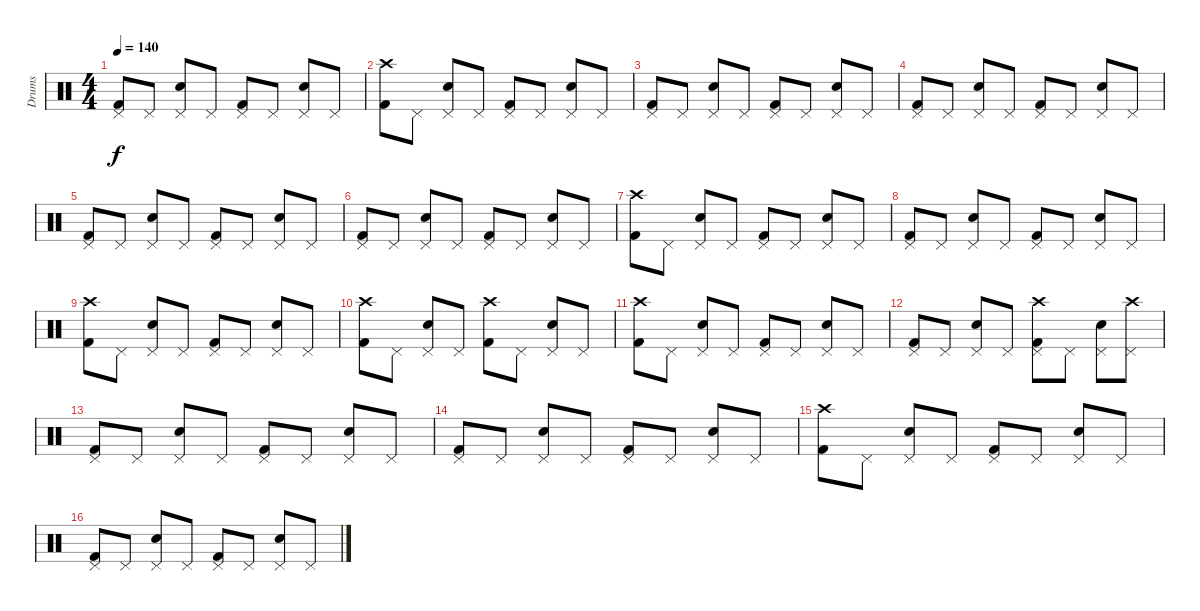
\track ("Drums" "Drums") {instrument percussion}
\staff {score}
\articulation defaults
\ts (4 4)
\tempo 140
\clef neutral
\ks c
("Pedal Hi-Hat (hit)" "Kick (hit) 2").8{dy f} "Pedal Hi-Hat (hit)".8 ("Pedal Hi-Hat (hit)" "Snare (hit) 2").8 "Pedal Hi-Hat (hit)".8 ("Pedal Hi-Hat (hit)" "Kick (hit) 2").8 "Pedal Hi-Hat (hit)".8 ("Pedal Hi-Hat (hit)" "Snare (hit) 2").8 "Pedal Hi-Hat (hit)".8 |
("Crash high (hit)" "Kick (hit) 2").8 "Pedal Hi-Hat (hit)".8 ("Pedal Hi-Hat (hit)" "Snare (hit) 2").8 "Pedal Hi-Hat (hit)".8 ("Pedal Hi-Hat (hit)" "Kick (hit) 2").8 "Pedal Hi-Hat (hit)".8 ("Pedal Hi-Hat (hit)" "Snare (hit) 2").8 "Pedal Hi-Hat (hit)".8 |
("Pedal Hi-Hat (hit)" "Kick (hit) 2").8 "Pedal Hi-Hat (hit)".8 ("Pedal Hi-Hat (hit)" "Snare (hit) 2").8 "Pedal Hi-Hat (hit)".8 ("Pedal Hi-Hat (hit)" "Kick (hit) 2").8 "Pedal Hi-Hat (hit)".8 ("Pedal Hi-Hat (hit)" "Snare (hit) 2").8 "Pedal Hi-Hat (hit)".8 |
("Pedal Hi-Hat (hit)" "Kick (hit) 2").8 "Pedal Hi-Hat (hit)".8 ("Pedal Hi-Hat (hit)" "Snare (hit) 2").8 "Pedal Hi-Hat (hit)".8 ("Pedal Hi-Hat (hit)" "Kick (hit) 2").8 "Pedal Hi-Hat (hit)".8 ("Pedal Hi-Hat (hit)" "Snare (hit) 2").8 "Pedal Hi-Hat (hit)".8 |
("Pedal Hi-Hat (hit)" "Kick (hit) 2").8 "Pedal Hi-Hat (hit)".8 ("Pedal Hi-Hat (hit)" "Snare (hit) 2").8 "Pedal Hi-Hat (hit)".8 ("Pedal Hi-Hat (hit)" "Kick (hit) 2").8 "Pedal Hi-Hat (hit)".8 ("Pedal Hi-Hat (hit)" "Snare (hit) 2").8 "Pedal Hi-Hat (hit)".8 |
("Pedal Hi-Hat (hit)" "Kick (hit) 2").8 "Pedal Hi-Hat (hit)".8 ("Pedal Hi-Hat (hit)" "Snare (hit) 2").8 "Pedal Hi-Hat (hit)".8 ("Pedal Hi-Hat (hit)" "Kick (hit) 2").8 "Pedal Hi-Hat (hit)".8 ("Pedal Hi-Hat (hit)" "Snare (hit) 2").8 "Pedal Hi-Hat (hit)".8 |
("Crash high (hit)" "Kick (hit) 2").8 "Pedal Hi-Hat (hit)".8 ("Pedal Hi-Hat (hit)" "Snare (hit) 2").8 "Pedal Hi-Hat (hit)".8 ("Pedal Hi-Hat (hit)" "Kick (hit) 2").8 "Pedal Hi-Hat (hit)".8 ("Pedal Hi-Hat (hit)" "Snare (hit) 2").8 "Pedal Hi-Hat (hit)".8 |
("Pedal Hi-Hat (hit)" "Kick (hit) 2").8 "Pedal Hi-Hat (hit)".8 ("Pedal Hi-Hat (hit)" "Snare (hit) 2").8 "Pedal Hi-Hat (hit)".8 ("Pedal Hi-Hat (hit)" "Kick (hit) 2").8 "Pedal Hi-Hat (hit)".8 ("Pedal Hi-Hat (hit)" "Snare (hit) 2").8 "Pedal Hi-Hat (hit)".8 |
("Crash high (hit)" "Kick (hit) 2").8 "Pedal Hi-Hat (hit)".8 ("Pedal Hi-Hat (hit)" "Snare (hit) 2").8 "Pedal Hi-Hat (hit)".8 ("Pedal Hi-Hat (hit)" "Kick (hit) 2").8 "Pedal Hi-Hat (hit)".8 ("Pedal Hi-Hat (hit)" "Snare (hit) 2").8 "Pedal Hi-Hat (hit)".8 |
("Crash high (hit)" "Kick (hit) 2").8 "Pedal Hi-Hat (hit)".8 ("Pedal Hi-Hat (hit)" "Snare (hit) 2").8 "Pedal Hi-Hat (hit)".8 ("Crash high (hit)" "Kick (hit) 2").8 "Pedal Hi-Hat (hit)".8 ("Pedal Hi-Hat (hit)" "Snare (hit) 2").8 "Pedal Hi-Hat (hit)".8 |
("Crash high (hit)" "Kick (hit) 2").8 "Pedal Hi-Hat (hit)".8 ("Pedal Hi-Hat (hit)" "Snare (hit) 2").8 "Pedal Hi-Hat (hit)".8 ("Pedal Hi-Hat (hit)" "Kick (hit) 2").8 "Pedal Hi-Hat (hit)".8 ("Pedal Hi-Hat (hit)" "Snare (hit) 2").8 "Pedal Hi-Hat (hit)".8 |
("Pedal Hi-Hat (hit)" "Kick (hit) 2").8 "Pedal Hi-Hat (hit)".8 ("Pedal Hi-Hat (hit)" "Snare (hit) 2").8 "Pedal Hi-Hat (hit)".8 ("Pedal Hi-Hat (hit)" "Crash high (hit)" "Kick (hit) 2").8 "Pedal Hi-Hat (hit)".8 ("Pedal Hi-Hat (hit)" "Snare (hit) 2").8 ("Pedal Hi-Hat (hit)" "Crash high (hit)").8 |
("Pedal Hi-Hat (hit)" "Kick (hit) 2").8 "Pedal Hi-Hat (hit)".8 ("Pedal Hi-Hat (hit)" "Snare (hit) 2").8 "Pedal Hi-Hat (hit)".8 ("Pedal Hi-Hat (hit)" "Kick (hit) 2").8 "Pedal Hi-Hat (hit)".8 ("Pedal Hi-Hat (hit)" "Snare (hit) 2").8 "Pedal Hi-Hat (hit)".8 |
("Pedal Hi-Hat (hit)" "Kick (hit) 2").8 "Pedal Hi-Hat (hit)".8 ("Pedal Hi-Hat (hit)" "Snare (hit) 2").8 "Pedal Hi-Hat (hit)".8 ("Pedal Hi-Hat (hit)" "Kick (hit) 2").8 "Pedal Hi-Hat (hit)".8 ("Pedal Hi-Hat (hit)" "Snare (hit) 2").8 "Pedal Hi-Hat (hit)".8 |
("Crash high (hit)" "Kick (hit) 2").8 "Pedal Hi-Hat (hit)".8 ("Pedal Hi-Hat (hit)" "Snare (hit) 2").8 "Pedal Hi-Hat (hit)".8 ("Pedal Hi-Hat (hit)" "Kick (hit) 2").8 "Pedal Hi-Hat (hit)".8 ("Pedal Hi-Hat (hit)" "Snare (hit) 2").8 "Pedal Hi-Hat (hit)".8 |
("Pedal Hi-Hat (hit)" "Kick (hit) 2").8 "Pedal Hi-Hat (hit)".8 ("Pedal Hi-Hat (hit)" "Snare (hit) 2").8 "Pedal Hi-Hat (hit)".8 ("Pedal Hi-Hat (hit)" "Kick (hit) 2").8 "Pedal Hi-Hat (hit)".8 ("Pedal Hi-Hat (hit)" "Snare (hit) 2").8 "Pedal Hi-Hat (hit)".8
